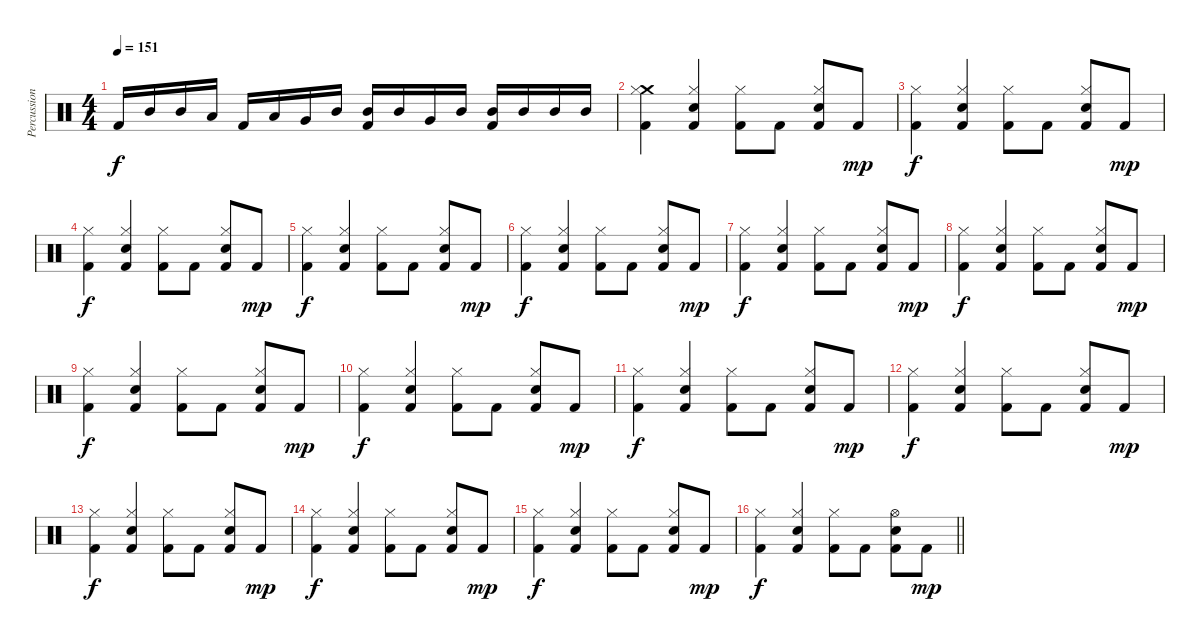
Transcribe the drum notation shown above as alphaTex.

\track ("Percussion" "Percussion") {instrument percussion}
\staff {score}
\articulation defaults
\ts (4 4)
\tempo 151
\clef neutral
\ks c "Kick (hit) 2".16{dy f} "Mid Tom (hit)".16 "Mid Tom (hit)".16 "Low Tom (hit)".16 "Kick (hit) 2".16 "Low Tom (hit)".16 "Very Low Tom (hit)".16 "Mid Tom (hit)".16
("Mid Tom (hit)" "Kick (hit) 2").16 "Mid Tom (hit)".16 "Very Low Tom (hit)".16 "Mid Tom (hit)".16 ("Mid Tom (hit)" "Kick (hit) 2").16 "Mid Tom (hit)".16 "Mid Tom (hit)".16 "Mid Tom (hit)".16 |
("Crash medium (hit)" "Hi-Hat (closed)" "Kick (hit) 2").4 ("Hi-Hat (closed)" "Snare (hit) 2" "Kick (hit) 2").4 ("Hi-Hat (closed)" "Kick (hit) 2").8 "Kick (hit) 2".8 ("Hi-Hat (closed)" "Snare (hit) 2" "Kick (hit) 2").8 "Kick (hit) 2".8{dy mp} |
("Hi-Hat (closed)" "Kick (hit) 2").4{dy f} ("Hi-Hat (closed)" "Snare (hit) 2" "Kick (hit) 2").4 ("Hi-Hat (closed)" "Kick (hit) 2").8 "Kick (hit) 2".8 ("Hi-Hat (closed)" "Snare (hit) 2" "Kick (hit) 2").8 "Kick (hit) 2".8{dy mp} |
("Hi-Hat (closed)" "Kick (hit) 2").4{dy f} ("Hi-Hat (closed)" "Snare (hit) 2" "Kick (hit) 2").4 ("Hi-Hat (closed)" "Kick (hit) 2").8 "Kick (hit) 2".8 ("Hi-Hat (closed)" "Snare (hit) 2" "Kick (hit) 2").8 "Kick (hit) 2".8{dy mp} |
("Hi-Hat (closed)" "Kick (hit) 2").4{dy f} ("Hi-Hat (closed)" "Snare (hit) 2" "Kick (hit) 2").4 ("Hi-Hat (closed)" "Kick (hit) 2").8 "Kick (hit) 2".8 ("Hi-Hat (closed)" "Snare (hit) 2" "Kick (hit) 2").8 "Kick (hit) 2".8{dy mp} |
("Hi-Hat (closed)" "Kick (hit) 2").4{dy f} ("Hi-Hat (closed)" "Snare (hit) 2" "Kick (hit) 2").4 ("Hi-Hat (closed)" "Kick (hit) 2").8 "Kick (hit) 2".8 ("Hi-Hat (closed)" "Snare (hit) 2" "Kick (hit) 2").8 "Kick (hit) 2".8{dy mp} |
("Hi-Hat (closed)" "Kick (hit) 2").4{dy f} ("Hi-Hat (closed)" "Snare (hit) 2" "Kick (hit) 2").4 ("Hi-Hat (closed)" "Kick (hit) 2").8 "Kick (hit) 2".8 ("Hi-Hat (closed)" "Snare (hit) 2" "Kick (hit) 2").8 "Kick (hit) 2".8{dy mp} |
("Hi-Hat (closed)" "Kick (hit) 2").4{dy f} ("Hi-Hat (closed)" "Snare (hit) 2" "Kick (hit) 2").4 ("Hi-Hat (closed)" "Kick (hit) 2").8 "Kick (hit) 2".8 ("Hi-Hat (closed)" "Snare (hit) 2" "Kick (hit) 2").8 "Kick (hit) 2".8{dy mp} |
("Hi-Hat (closed)" "Kick (hit) 2").4{dy f} ("Hi-Hat (closed)" "Snare (hit) 2" "Kick (hit) 2").4 ("Hi-Hat (closed)" "Kick (hit) 2").8 "Kick (hit) 2".8 ("Hi-Hat (closed)" "Snare (hit) 2" "Kick (hit) 2").8 "Kick (hit) 2".8{dy mp} |
("Hi-Hat (closed)" "Kick (hit) 2").4{dy f} ("Hi-Hat (closed)" "Snare (hit) 2" "Kick (hit) 2").4 ("Hi-Hat (closed)" "Kick (hit) 2").8 "Kick (hit) 2".8 ("Hi-Hat (closed)" "Snare (hit) 2" "Kick (hit) 2").8 "Kick (hit) 2".8{dy mp} |
("Hi-Hat (closed)" "Kick (hit) 2").4{dy f} ("Hi-Hat (closed)" "Snare (hit) 2" "Kick (hit) 2").4 ("Hi-Hat (closed)" "Kick (hit) 2").8 "Kick (hit) 2".8 ("Hi-Hat (closed)" "Snare (hit) 2" "Kick (hit) 2").8 "Kick (hit) 2".8{dy mp} |
("Hi-Hat (closed)" "Kick (hit) 2").4{dy f} ("Hi-Hat (closed)" "Snare (hit) 2" "Kick (hit) 2").4 ("Hi-Hat (closed)" "Kick (hit) 2").8 "Kick (hit) 2".8 ("Hi-Hat (closed)" "Snare (hit) 2" "Kick (hit) 2").8 "Kick (hit) 2".8{dy mp} |
("Hi-Hat (closed)" "Kick (hit) 2").4{dy f} ("Hi-Hat (closed)" "Snare (hit) 2" "Kick (hit) 2").4 ("Hi-Hat (closed)" "Kick (hit) 2").8 "Kick (hit) 2".8 ("Hi-Hat (closed)" "Snare (hit) 2" "Kick (hit) 2").8 "Kick (hit) 2".8{dy mp} |
("Hi-Hat (closed)" "Kick (hit) 2").4{dy f} ("Hi-Hat (closed)" "Snare (hit) 2" "Kick (hit) 2").4 ("Hi-Hat (closed)" "Kick (hit) 2").8 "Kick (hit) 2".8 ("Hi-Hat (closed)" "Snare (hit) 2" "Kick (hit) 2").8 "Kick (hit) 2".8{dy mp} |
("Hi-Hat (closed)" "Kick (hit) 2").4{dy f} ("Hi-Hat (closed)" "Snare (hit) 2" "Kick (hit) 2").4 ("Hi-Hat (closed)" "Kick (hit) 2").8 "Kick (hit) 2".8 ("Hi-Hat (closed)" "Snare (hit) 2" "Kick (hit) 2").8 "Kick (hit) 2".8{dy mp} |
\barLineRight lightlight
("Hi-Hat (closed)" "Kick (hit) 2").4{dy f} ("Hi-Hat (closed)" "Snare (hit) 2" "Kick (hit) 2").4 ("Hi-Hat (closed)" "Kick (hit) 2").8 "Kick (hit) 2".8 ("Hi-Hat (open)" "Snare (hit) 2" "Kick (hit) 2").8 "Kick (hit) 2".8{dy mp}
